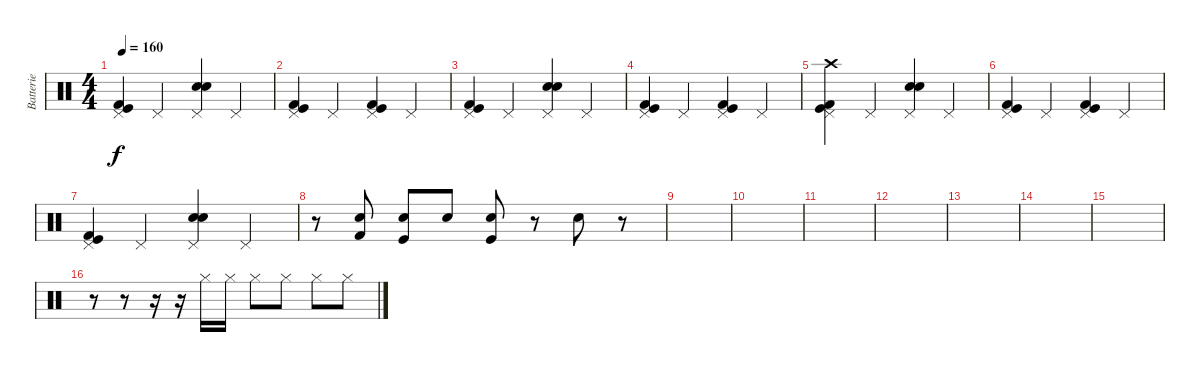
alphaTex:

\track ("Batterie" "Batterie") {instrument percussion}
\staff {score}
\articulation defaults
\ts (4 4)
\tempo 160
\clef neutral
\ks c
("Pedal Hi-Hat (hit)" "Kick (hit)" "Kick (hit) 2").4{dy f} "Pedal Hi-Hat (hit)".4 ("Pedal Hi-Hat (hit)" "Electric Snare (hit)" "Electric Snare (hit)").4 "Pedal Hi-Hat (hit)".4 |
("Pedal Hi-Hat (hit)" "Kick (hit)" "Kick (hit) 2").4 "Pedal Hi-Hat (hit)".4 ("Pedal Hi-Hat (hit)" "Kick (hit)" "Kick (hit) 2").4 "Pedal Hi-Hat (hit)".4 |
("Pedal Hi-Hat (hit)" "Kick (hit)" "Kick (hit) 2").4 "Pedal Hi-Hat (hit)".4 ("Pedal Hi-Hat (hit)" "Electric Snare (hit)" "Electric Snare (hit)").4 "Pedal Hi-Hat (hit)".4 |
("Pedal Hi-Hat (hit)" "Kick (hit)" "Kick (hit) 2").4 "Pedal Hi-Hat (hit)".4 ("Pedal Hi-Hat (hit)" "Kick (hit)" "Kick (hit) 2").4 "Pedal Hi-Hat (hit)".4 |
("Crash high (hit)" "Pedal Hi-Hat (hit)" "Kick (hit)" "Kick (hit) 2").4 "Pedal Hi-Hat (hit)".4 ("Pedal Hi-Hat (hit)" "Electric Snare (hit)" "Electric Snare (hit)").4 "Pedal Hi-Hat (hit)".4 |
("Pedal Hi-Hat (hit)" "Kick (hit)" "Kick (hit) 2").4 "Pedal Hi-Hat (hit)".4 ("Pedal Hi-Hat (hit)" "Kick (hit)" "Kick (hit) 2").4 "Pedal Hi-Hat (hit)".4 |
("Pedal Hi-Hat (hit)" "Kick (hit)" "Kick (hit) 2").4 "Pedal Hi-Hat (hit)".4 ("Pedal Hi-Hat (hit)" "Electric Snare (hit)" "Electric Snare (hit)").4 "Pedal Hi-Hat (hit)".4 |
r.8 ("Electric Snare (hit)" "Kick (hit) 2").8 ("Electric Snare (hit)" "Kick (hit)").8 "Snare (hit) 2".8 ("Snare (hit) 2" "Kick (hit)").8 r.8 "Electric Snare (hit)".8 r.8 |
|
|
|
|
|
|
|
r.8 r.8 r.16 r.16 "Hi-Hat (closed)".16 "Hi-Hat (closed)".16 "Hi-Hat (closed)".8 "Hi-Hat (closed)".8 "Hi-Hat (closed)".8 "Hi-Hat (closed)".8
